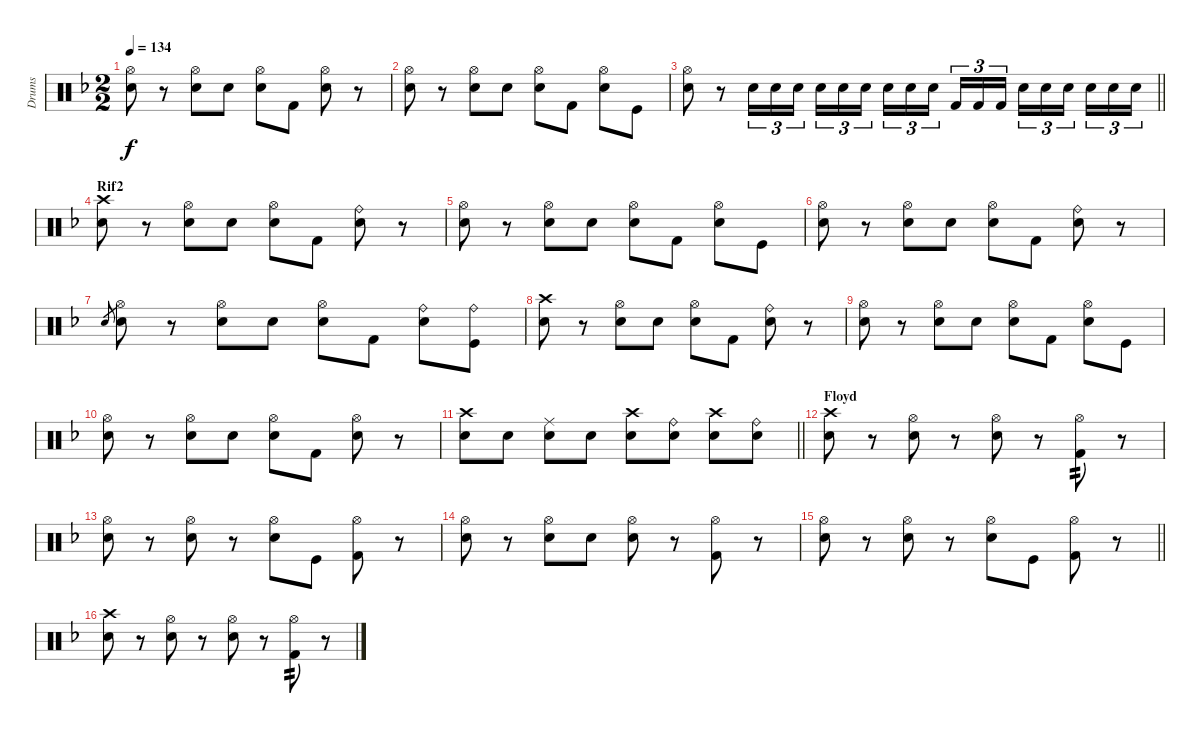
\track ("Drums" "Drums") {instrument percussion}
\staff {score}
\articulation defaults
\ts (2 2)
\tempo 134
\clef neutral
\ks f
("Snare (hit) 2" "Hi-Hat (open)").8{dy f} r.8 ("Snare (hit) 2" "Hi-Hat (open)").8 "Electric Snare (hit)".8 ("Snare (hit) 2" "Hi-Hat (open)").8 "Kick (hit) 2".8 ("Snare (hit) 2" "Hi-Hat (open)").8 r.8 |
("Snare (hit) 2" "Hi-Hat (open)").8 r.8 ("Snare (hit) 2" "Hi-Hat (open)").8 "Electric Snare (hit)".8 ("Snare (hit) 2" "Hi-Hat (open)").8 "Kick (hit) 2".8 ("Snare (hit) 2" "Hi-Hat (open)").8 "Kick (hit)".8 |
\barLineRight lightlight
("Snare (hit) 2" "Hi-Hat (open)").8 r.8 "Snare (hit) 2".16{tu (3 2)} "Snare (hit) 2".16{tu (3 2)} "Snare (hit) 2".16{tu (3 2) beam splitsecondary} "Electric Snare (hit)".16{tu (3 2)} "Electric Snare (hit)".16{tu (3 2)} "Electric Snare (hit)".16{tu (3 2)} "Snare (hit) 2".16{tu (3 2)} "Snare (hit) 2".16{tu (3 2)} "Snare (hit) 2".16{tu (3 2) beam splitsecondary} "Kick (hit) 2".16{tu (3 2)} "Kick (hit) 2".16{tu (3 2)} "Kick (hit) 2".16{tu (3 2) beam splitsecondary} "Electric Snare (hit)".16{tu (3 2)} "Electric Snare (hit)".16{tu (3 2)} "Electric Snare (hit)".16{tu (3 2) beam splitsecondary} "Snare (hit) 2".16{tu (3 2)} "Snare (hit) 2".16{tu (3 2)} "Snare (hit) 2".16{tu (3 2)} |
\section ("" "Rif2")
("Snare (hit) 2" "Crash high (hit)").8 r.8 ("Snare (hit) 2" "Hi-Hat (open)").8 "Electric Snare (hit)".8 ("Snare (hit) 2" "Hi-Hat (open)").8 "Kick (hit) 2".8 ("Snare (hit) 2" "Ride (bell)").8 r.8 |
("Snare (hit) 2" "Hi-Hat (open)").8 r.8 ("Snare (hit) 2" "Hi-Hat (open)").8 "Electric Snare (hit)".8 ("Snare (hit) 2" "Hi-Hat (open)").8 "Kick (hit) 2".8 ("Snare (hit) 2" "Hi-Hat (open)").8 "Kick (hit)".8 |
("Snare (hit) 2" "Hi-Hat (open)").8 r.8 ("Snare (hit) 2" "Hi-Hat (open)").8 "Electric Snare (hit)".8 ("Snare (hit) 2" "Hi-Hat (open)").8 "Kick (hit) 2".8 ("Snare (hit) 2" "Ride (bell)").8 r.8 |
"Snare (hit) 2".8{gr} ("Snare (hit) 2" "Hi-Hat (open)").8 r.8 ("Snare (hit) 2" "Hi-Hat (open)").8 "Electric Snare (hit)".8 ("Snare (hit) 2" "Hi-Hat (open)").8 "Kick (hit) 2".8 ("Snare (hit) 2" "Ride (bell)").8 ("Kick (hit)" "Ride (bell)").8 |
("Snare (hit) 2" "Crash high (hit)").8 r.8 ("Snare (hit) 2" "Hi-Hat (open)").8 "Electric Snare (hit)".8 ("Snare (hit) 2" "Hi-Hat (open)").8 "Kick (hit) 2".8 ("Snare (hit) 2" "Ride (bell)").8 r.8 |
("Snare (hit) 2" "Hi-Hat (open)").8 r.8 ("Snare (hit) 2" "Hi-Hat (open)").8 "Electric Snare (hit)".8 ("Snare (hit) 2" "Hi-Hat (open)").8 "Kick (hit) 2".8 ("Snare (hit) 2" "Hi-Hat (open)").8 "Kick (hit)".8 |
("Snare (hit) 2" "Hi-Hat (open)").8 r.8 ("Snare (hit) 2" "Hi-Hat (open)").8 "Electric Snare (hit)".8 ("Snare (hit) 2" "Hi-Hat (open)").8 "Kick (hit) 2".8 ("Snare (hit) 2" "Hi-Hat (open)").8 r.8 |
\barLineRight lightlight
("Electric Snare (hit)" "Crash high (hit)").8 "Electric Snare (hit)".8 ("Electric Snare (hit)" "Ride (middle)").8 "Electric Snare (hit)".8 ("Snare (hit) 2" "Crash high (hit)").8 ("Snare (hit) 2" "Ride (bell)").8 ("Snare (hit) 2" "Crash high (hit)").8 ("Snare (hit) 2" "Ride (bell)").8 |
\section ("" "Floyd")
("Snare (hit) 2" "Crash high (hit)").8 r.8 ("Snare (hit) 2" "Hi-Hat (open)").8 r.8 ("Electric Snare (hit)" "Hi-Hat (open)").8 r.8 ("Kick (hit) 2" "Hi-Hat (open)").8{tp 2} r.8 |
("Snare (hit) 2" "Hi-Hat (open)").8 r.8 ("Snare (hit) 2" "Hi-Hat (open)").8 r.8 ("Electric Snare (hit)" "Hi-Hat (open)").8 "Kick (hit)".8 ("Kick (hit) 2" "Hi-Hat (open)").8 r.8 |
("Snare (hit) 2" "Hi-Hat (open)").8 r.8 ("Snare (hit) 2" "Hi-Hat (open)").8 "Snare (hit) 2".8 ("Electric Snare (hit)" "Hi-Hat (open)").8 r.8 ("Kick (hit) 2" "Hi-Hat (open)").8 r.8 |
\barLineRight lightlight
("Snare (hit) 2" "Hi-Hat (open)").8 r.8 ("Snare (hit) 2" "Hi-Hat (open)").8 r.8 ("Electric Snare (hit)" "Hi-Hat (open)").8 "Kick (hit)".8 ("Kick (hit) 2" "Hi-Hat (open)").8 r.8 |
("Snare (hit) 2" "Crash high (hit)").8 r.8 ("Snare (hit) 2" "Hi-Hat (open)").8 r.8 ("Electric Snare (hit)" "Hi-Hat (open)").8 r.8 ("Kick (hit) 2" "Hi-Hat (open)").8{tp 2} r.8
